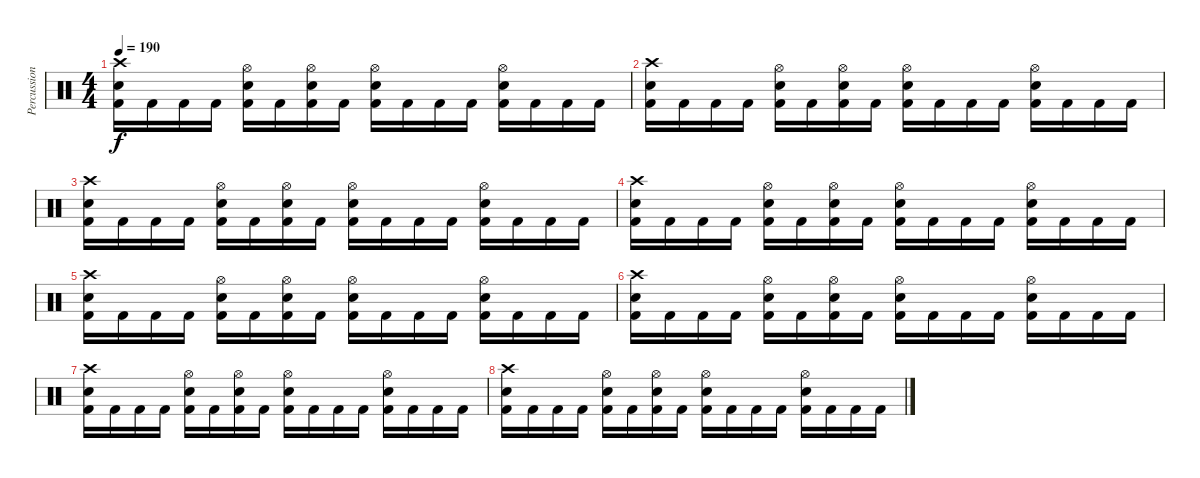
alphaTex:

\track ("Percussion" "Percussion") {instrument percussion}
\staff {score}
\articulation defaults
\ts (4 4)
\tempo 190
\clef neutral
\ks c
("Kick (hit) 2" "Snare (hit) 2" "Crash high (hit)").16{dy f} "Kick (hit) 2".16 "Kick (hit) 2".16 "Kick (hit) 2".16 ("Kick (hit) 2" "Snare (hit) 2" "Hi-Hat (open)").16 "Kick (hit) 2".16 ("Kick (hit) 2" "Snare (hit) 2" "Hi-Hat (open)").16 "Kick (hit) 2".16 ("Kick (hit) 2" "Snare (hit) 2" "Hi-Hat (open)").16 "Kick (hit) 2".16 "Kick (hit) 2".16 "Kick (hit) 2".16 ("Kick (hit) 2" "Snare (hit) 2" "Hi-Hat (open)").16 "Kick (hit) 2".16 "Kick (hit) 2".16 "Kick (hit) 2".16 |
("Kick (hit) 2" "Snare (hit) 2" "Crash high (hit)").16 "Kick (hit) 2".16 "Kick (hit) 2".16 "Kick (hit) 2".16 ("Kick (hit) 2" "Snare (hit) 2" "Hi-Hat (open)").16 "Kick (hit) 2".16 ("Kick (hit) 2" "Snare (hit) 2" "Hi-Hat (open)").16 "Kick (hit) 2".16 ("Kick (hit) 2" "Snare (hit) 2" "Hi-Hat (open)").16 "Kick (hit) 2".16 "Kick (hit) 2".16 "Kick (hit) 2".16 ("Kick (hit) 2" "Snare (hit) 2" "Hi-Hat (open)").16 "Kick (hit) 2".16 "Kick (hit) 2".16 "Kick (hit) 2".16 |
("Kick (hit) 2" "Snare (hit) 2" "Crash high (hit)").16 "Kick (hit) 2".16 "Kick (hit) 2".16 "Kick (hit) 2".16 ("Kick (hit) 2" "Snare (hit) 2" "Hi-Hat (open)").16 "Kick (hit) 2".16 ("Kick (hit) 2" "Snare (hit) 2" "Hi-Hat (open)").16 "Kick (hit) 2".16 ("Kick (hit) 2" "Snare (hit) 2" "Hi-Hat (open)").16 "Kick (hit) 2".16 "Kick (hit) 2".16 "Kick (hit) 2".16 ("Kick (hit) 2" "Snare (hit) 2" "Hi-Hat (open)").16 "Kick (hit) 2".16 "Kick (hit) 2".16 "Kick (hit) 2".16 |
("Kick (hit) 2" "Snare (hit) 2" "Crash high (hit)").16 "Kick (hit) 2".16 "Kick (hit) 2".16 "Kick (hit) 2".16 ("Kick (hit) 2" "Snare (hit) 2" "Hi-Hat (open)").16 "Kick (hit) 2".16 ("Kick (hit) 2" "Snare (hit) 2" "Hi-Hat (open)").16 "Kick (hit) 2".16 ("Kick (hit) 2" "Snare (hit) 2" "Hi-Hat (open)").16 "Kick (hit) 2".16 "Kick (hit) 2".16 "Kick (hit) 2".16 ("Kick (hit) 2" "Snare (hit) 2" "Hi-Hat (open)").16 "Kick (hit) 2".16 "Kick (hit) 2".16 "Kick (hit) 2".16 |
("Kick (hit) 2" "Snare (hit) 2" "Crash high (hit)").16 "Kick (hit) 2".16 "Kick (hit) 2".16 "Kick (hit) 2".16 ("Kick (hit) 2" "Snare (hit) 2" "Hi-Hat (open)").16 "Kick (hit) 2".16 ("Kick (hit) 2" "Snare (hit) 2" "Hi-Hat (open)").16 "Kick (hit) 2".16 ("Kick (hit) 2" "Snare (hit) 2" "Hi-Hat (open)").16 "Kick (hit) 2".16 "Kick (hit) 2".16 "Kick (hit) 2".16 ("Kick (hit) 2" "Snare (hit) 2" "Hi-Hat (open)").16 "Kick (hit) 2".16 "Kick (hit) 2".16 "Kick (hit) 2".16 |
("Kick (hit) 2" "Snare (hit) 2" "Crash high (hit)").16 "Kick (hit) 2".16 "Kick (hit) 2".16 "Kick (hit) 2".16 ("Kick (hit) 2" "Snare (hit) 2" "Hi-Hat (open)").16 "Kick (hit) 2".16 ("Kick (hit) 2" "Snare (hit) 2" "Hi-Hat (open)").16 "Kick (hit) 2".16 ("Kick (hit) 2" "Snare (hit) 2" "Hi-Hat (open)").16 "Kick (hit) 2".16 "Kick (hit) 2".16 "Kick (hit) 2".16 ("Kick (hit) 2" "Snare (hit) 2" "Hi-Hat (open)").16 "Kick (hit) 2".16 "Kick (hit) 2".16 "Kick (hit) 2".16 |
("Kick (hit) 2" "Snare (hit) 2" "Crash high (hit)").16 "Kick (hit) 2".16 "Kick (hit) 2".16 "Kick (hit) 2".16 ("Kick (hit) 2" "Snare (hit) 2" "Hi-Hat (open)").16 "Kick (hit) 2".16 ("Kick (hit) 2" "Snare (hit) 2" "Hi-Hat (open)").16 "Kick (hit) 2".16 ("Kick (hit) 2" "Snare (hit) 2" "Hi-Hat (open)").16 "Kick (hit) 2".16 "Kick (hit) 2".16 "Kick (hit) 2".16 ("Kick (hit) 2" "Snare (hit) 2" "Hi-Hat (open)").16 "Kick (hit) 2".16 "Kick (hit) 2".16 "Kick (hit) 2".16 |
("Kick (hit) 2" "Snare (hit) 2" "Crash high (hit)").16 "Kick (hit) 2".16 "Kick (hit) 2".16 "Kick (hit) 2".16 ("Kick (hit) 2" "Snare (hit) 2" "Hi-Hat (open)").16 "Kick (hit) 2".16 ("Kick (hit) 2" "Snare (hit) 2" "Hi-Hat (open)").16 "Kick (hit) 2".16 ("Kick (hit) 2" "Snare (hit) 2" "Hi-Hat (open)").16 "Kick (hit) 2".16 "Kick (hit) 2".16 "Kick (hit) 2".16 ("Kick (hit) 2" "Snare (hit) 2" "Hi-Hat (open)").16 "Kick (hit) 2".16 "Kick (hit) 2".16 "Kick (hit) 2".16
